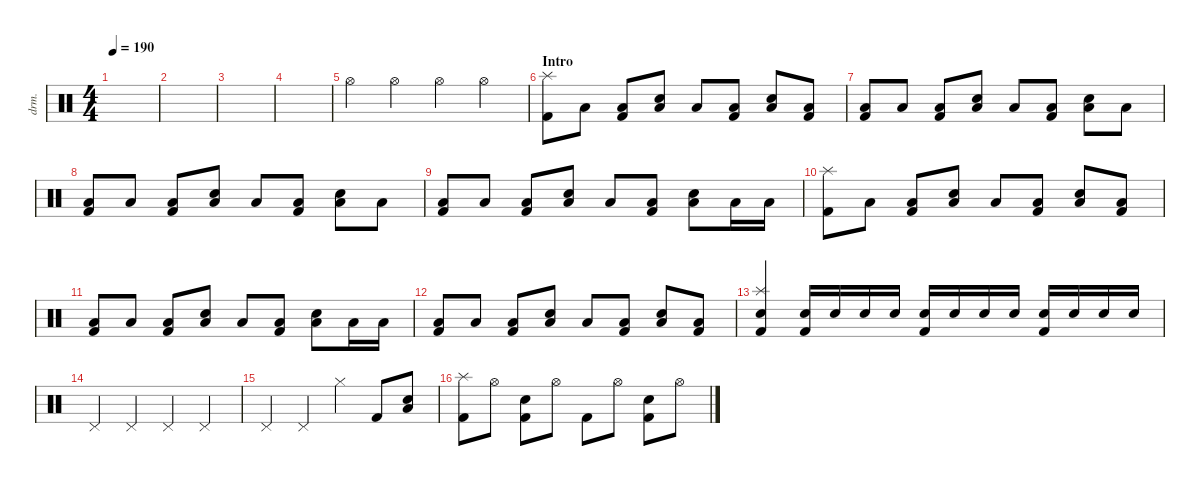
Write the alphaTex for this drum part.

\defaultSystemsLayout 4
\hideDynamics
\bracketExtendMode nobrackets
\track ("伊地知虹夏" "drm.") {solo instrument percussion}
\staff {score}
\articulation defaults
\ts (4 4)
\tempo 190
\clef neutral
\ks c
|
|
|
|
"Hi-Hat (open)".4 "Hi-Hat (open)".4 "Hi-Hat (open)".4 "Hi-Hat (open)".4 |
\section ("" "Intro")
("Kick (hit) 2" "Splash (hit)").8 "Low Tom (hit)".8 ("Low Tom (hit)" "Kick (hit) 2").8 ("Low Tom (hit)" "Snare (hit) 2").8 "Low Tom (hit)".8 ("Low Tom (hit)" "Kick (hit) 2").8 ("Low Tom (hit)" "Snare (hit) 2").8 ("Low Tom (hit)" "Kick (hit) 2").8 |
("Kick (hit) 2" "Low Tom (hit)").8 "Low Tom (hit)".8 ("Low Tom (hit)" "Kick (hit) 2").8 ("Low Tom (hit)" "Snare (hit) 2").8 "Low Tom (hit)".8 ("Low Tom (hit)" "Kick (hit) 2").8 ("Low Tom (hit)" "Snare (hit) 2").8 "Low Tom (hit)".8 |
("Kick (hit) 2" "Low Tom (hit)").8 "Low Tom (hit)".8 ("Low Tom (hit)" "Kick (hit) 2").8 ("Low Tom (hit)" "Snare (hit) 2").8 "Low Tom (hit)".8 ("Low Tom (hit)" "Kick (hit) 2").8 ("Low Tom (hit)" "Snare (hit) 2").8 "Low Tom (hit)".8 |
("Kick (hit) 2" "Low Tom (hit)").8 "Low Tom (hit)".8 ("Low Tom (hit)" "Kick (hit) 2").8 ("Low Tom (hit)" "Snare (hit) 2").8 "Low Tom (hit)".8 ("Low Tom (hit)" "Kick (hit) 2").8 ("Low Tom (hit)" "Snare (hit) 2").8 "Low Tom (hit)".16 "Low Tom (hit)".16 |
("Kick (hit) 2" "Splash (hit)").8 "Low Tom (hit)".8 ("Low Tom (hit)" "Kick (hit) 2").8 ("Low Tom (hit)" "Snare (hit) 2").8 "Low Tom (hit)".8 ("Low Tom (hit)" "Kick (hit) 2").8 ("Low Tom (hit)" "Snare (hit) 2").8 ("Low Tom (hit)" "Kick (hit) 2").8 |
("Kick (hit) 2" "Low Tom (hit)").8 "Low Tom (hit)".8 ("Low Tom (hit)" "Kick (hit) 2").8 ("Low Tom (hit)" "Snare (hit) 2").8 "Low Tom (hit)".8 ("Low Tom (hit)" "Kick (hit) 2").8 ("Low Tom (hit)" "Snare (hit) 2").8 "Low Tom (hit)".16 "Low Tom (hit)".16 |
("Kick (hit) 2" "Low Tom (hit)").8 "Low Tom (hit)".8 ("Low Tom (hit)" "Kick (hit) 2").8 ("Low Tom (hit)" "Snare (hit) 2").8 "Low Tom (hit)".8 ("Low Tom (hit)" "Kick (hit) 2").8 ("Low Tom (hit)" "Snare (hit) 2").8 ("Low Tom (hit)" "Kick (hit) 2").8 |
("Splash (hit)" "Snare (hit) 2" "Kick (hit) 2").4 ("Snare (hit) 2" "Kick (hit) 2").16 "Snare (hit) 2".16 "Snare (hit) 2".16 "Snare (hit) 2".16 ("Snare (hit) 2" "Kick (hit) 2").16 "Snare (hit) 2".16 "Snare (hit) 2".16 "Snare (hit) 2".16 ("Snare (hit) 2" "Kick (hit) 2").16 "Snare (hit) 2".16 "Snare (hit) 2".16 "Snare (hit) 2".16 |
"Pedal Hi-Hat (hit)".4 "Pedal Hi-Hat (hit)".4 "Pedal Hi-Hat (hit)".4 "Pedal Hi-Hat (hit)".4 |
"Pedal Hi-Hat (hit)".4 "Pedal Hi-Hat (hit)".4 "Hi-Hat (closed)".4 "Kick (hit) 2".8 ("Low Tom (hit)" "Snare (hit) 2").8 |
("Kick (hit) 2" "Splash (hit)").8 "Hi-Hat (open)".8 ("Snare (hit) 2" "Kick (hit) 2").8 "Hi-Hat (open)".8 "Kick (hit) 2".8 "Hi-Hat (open)".8 ("Kick (hit) 2" "Snare (hit) 2").8 "Hi-Hat (open)".8
